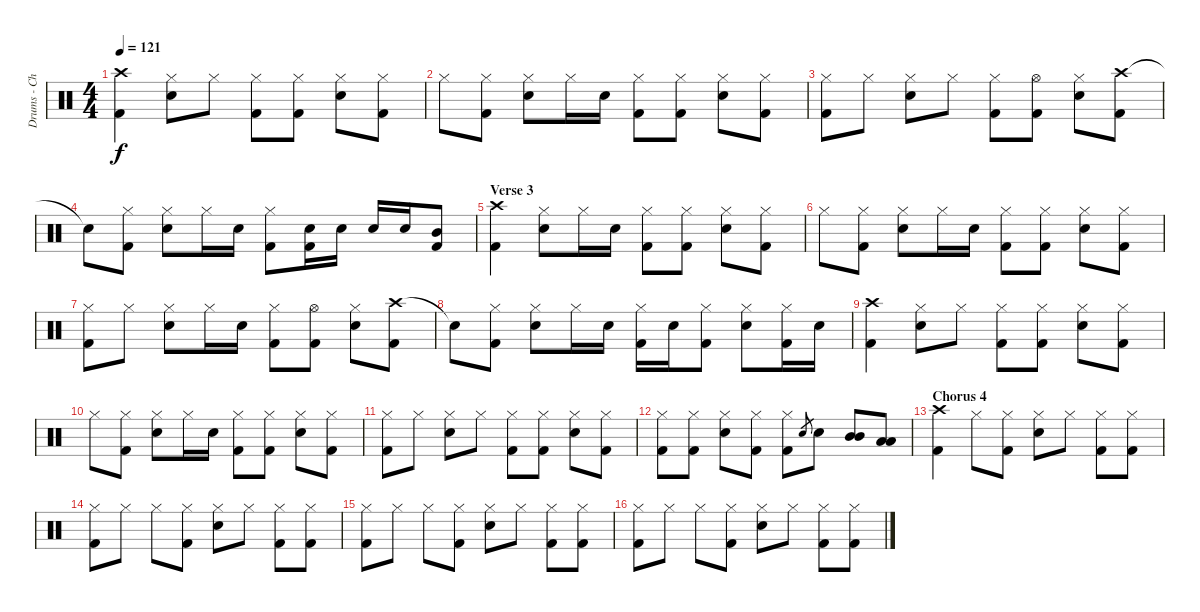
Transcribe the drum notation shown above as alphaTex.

\track ("Drums - Chad" "Drums - Ch") {instrument percussion}
\staff {score}
\articulation defaults
\ts (4 4)
\tempo 121
\clef neutral
\ks c
("Crash high (hit)" "Kick (hit) 2").4{dy f} ("Hi-Hat (closed)" "Electric Snare (hit)").8 "Hi-Hat (closed)".8 ("Hi-Hat (closed)" "Kick (hit) 2").8 ("Hi-Hat (closed)" "Kick (hit) 2").8 ("Hi-Hat (closed)" "Electric Snare (hit)").8 ("Hi-Hat (closed)" "Kick (hit) 2").8 |
"Hi-Hat (closed)".8 ("Hi-Hat (closed)" "Kick (hit) 2").8 ("Hi-Hat (closed)" "Electric Snare (hit)").8 "Hi-Hat (closed)".16 "Electric Snare (hit)".16 ("Hi-Hat (closed)" "Kick (hit) 2").8 ("Hi-Hat (closed)" "Kick (hit) 2").8 ("Hi-Hat (closed)" "Electric Snare (hit)").8 ("Hi-Hat (closed)" "Kick (hit) 2").8 |
("Hi-Hat (closed)" "Kick (hit) 2").8 "Hi-Hat (closed)".8 ("Hi-Hat (closed)" "Electric Snare (hit)").8 "Hi-Hat (closed)".8 ("Hi-Hat (closed)" "Kick (hit) 2").8 ("Hi-Hat (open)" "Kick (hit) 2").8 ("Hi-Hat (closed)" "Electric Snare (hit)").8 ("Crash high (hit)" "Kick (hit) 2").8 |
"Snare (hit)"{t}.8 ("Hi-Hat (closed)" "Kick (hit) 2").8 ("Hi-Hat (closed)" "Electric Snare (hit)").8 "Hi-Hat (closed)".16 "Electric Snare (hit)".16 ("Hi-Hat (closed)" "Kick (hit) 2").8 ("Electric Snare (hit)" "Kick (hit) 2").16 "Electric Snare (hit)".16 "Electric Snare (hit)".16 "Electric Snare (hit)".16 ("Mid Tom (hit)" "Kick (hit) 2").8 |
\section ("" "Verse 3")
("Crash high (hit)" "Kick (hit) 2").4 ("Hi-Hat (closed)" "Electric Snare (hit)").8 "Hi-Hat (closed)".16 "Electric Snare (hit)".16 ("Hi-Hat (closed)" "Kick (hit) 2").8 ("Hi-Hat (closed)" "Kick (hit) 2").8 ("Hi-Hat (closed)" "Electric Snare (hit)").8 ("Hi-Hat (closed)" "Kick (hit) 2").8 |
"Hi-Hat (closed)".8 ("Hi-Hat (closed)" "Kick (hit) 2").8 ("Hi-Hat (closed)" "Electric Snare (hit)").8 "Hi-Hat (closed)".16 "Electric Snare (hit)".16 ("Hi-Hat (closed)" "Kick (hit) 2").8 ("Hi-Hat (closed)" "Kick (hit) 2").8 ("Hi-Hat (closed)" "Electric Snare (hit)").8 ("Hi-Hat (closed)" "Kick (hit) 2").8 |
("Hi-Hat (closed)" "Kick (hit) 2").8 "Hi-Hat (closed)".8 ("Hi-Hat (closed)" "Electric Snare (hit)").8 "Hi-Hat (closed)".16 "Electric Snare (hit)".16 ("Hi-Hat (closed)" "Kick (hit) 2").8 ("Hi-Hat (open)" "Kick (hit) 2").8 ("Hi-Hat (closed)" "Electric Snare (hit)").8 ("Crash high (hit)" "Kick (hit) 2").8 |
"Snare (hit)"{t}.8 ("Hi-Hat (closed)" "Kick (hit) 2").8 ("Hi-Hat (closed)" "Electric Snare (hit)").8 "Hi-Hat (closed)".16 "Electric Snare (hit)".16 ("Hi-Hat (closed)" "Kick (hit) 2").16 "Electric Snare (hit)".16 ("Hi-Hat (closed)" "Kick (hit) 2").8 ("Hi-Hat (closed)" "Electric Snare (hit)").8 ("Hi-Hat (closed)" "Kick (hit) 2").16 "Electric Snare (hit)".16 |
("Crash high (hit)" "Kick (hit) 2").4 ("Hi-Hat (closed)" "Electric Snare (hit)").8 "Hi-Hat (closed)".8 ("Hi-Hat (closed)" "Kick (hit) 2").8 ("Hi-Hat (closed)" "Kick (hit) 2").8 ("Hi-Hat (closed)" "Electric Snare (hit)").8 ("Hi-Hat (closed)" "Kick (hit) 2").8 |
"Hi-Hat (closed)".8 ("Hi-Hat (closed)" "Kick (hit) 2").8 ("Hi-Hat (closed)" "Electric Snare (hit)").8 "Hi-Hat (closed)".16 "Electric Snare (hit)".16 ("Hi-Hat (closed)" "Kick (hit) 2").8 ("Hi-Hat (closed)" "Kick (hit) 2").8 ("Hi-Hat (closed)" "Electric Snare (hit)").8 ("Hi-Hat (closed)" "Kick (hit) 2").8 |
("Hi-Hat (closed)" "Kick (hit) 2").8 "Hi-Hat (closed)".8 ("Hi-Hat (closed)" "Electric Snare (hit)").8 "Hi-Hat (closed)".8 ("Hi-Hat (closed)" "Kick (hit) 2").8 ("Hi-Hat (closed)" "Kick (hit) 2").8 ("Hi-Hat (closed)" "Electric Snare (hit)").8 ("Hi-Hat (closed)" "Kick (hit) 2").8 |
("Hi-Hat (closed)" "Kick (hit) 2").8 ("Hi-Hat (closed)" "Kick (hit) 2").8 ("Hi-Hat (closed)" "Electric Snare (hit)").8 ("Hi-Hat (closed)" "Kick (hit) 2").8 ("Hi-Hat (closed)" "Kick (hit) 2").8 "Electric Snare (hit)".8{gr} "Electric Snare (hit)".8 ("Mid Tom (hit)" "Mid Tom (hit)").8 ("Low Tom (hit)" "Low Tom (hit)").8 |
\section ("" "Chorus 4")
("Crash high (hit)" "Kick (hit) 2").4 "Hi-Hat (closed)".8 ("Hi-Hat (closed)" "Kick (hit) 2").8 ("Hi-Hat (closed)" "Electric Snare (hit)").8 "Hi-Hat (closed)".8 ("Hi-Hat (closed)" "Kick (hit) 2").8 ("Hi-Hat (closed)" "Kick (hit) 2").8 |
("Hi-Hat (closed)" "Kick (hit) 2").8 "Hi-Hat (closed)".8 "Hi-Hat (closed)".8 ("Hi-Hat (closed)" "Kick (hit) 2").8 ("Hi-Hat (closed)" "Electric Snare (hit)").8 "Hi-Hat (closed)".8 ("Hi-Hat (closed)" "Kick (hit) 2").8 ("Hi-Hat (closed)" "Kick (hit) 2").8 |
("Hi-Hat (closed)" "Kick (hit) 2").8 "Hi-Hat (closed)".8 "Hi-Hat (closed)".8 ("Hi-Hat (closed)" "Kick (hit) 2").8 ("Hi-Hat (closed)" "Electric Snare (hit)").8 "Hi-Hat (closed)".8 ("Hi-Hat (closed)" "Kick (hit) 2").8 ("Hi-Hat (closed)" "Kick (hit) 2").8 |
("Hi-Hat (closed)" "Kick (hit) 2").8 "Hi-Hat (closed)".8 "Hi-Hat (closed)".8 ("Hi-Hat (closed)" "Kick (hit) 2").8 ("Hi-Hat (closed)" "Electric Snare (hit)").8 "Hi-Hat (closed)".8 ("Hi-Hat (closed)" "Kick (hit) 2").8 ("Hi-Hat (closed)" "Kick (hit) 2").8
